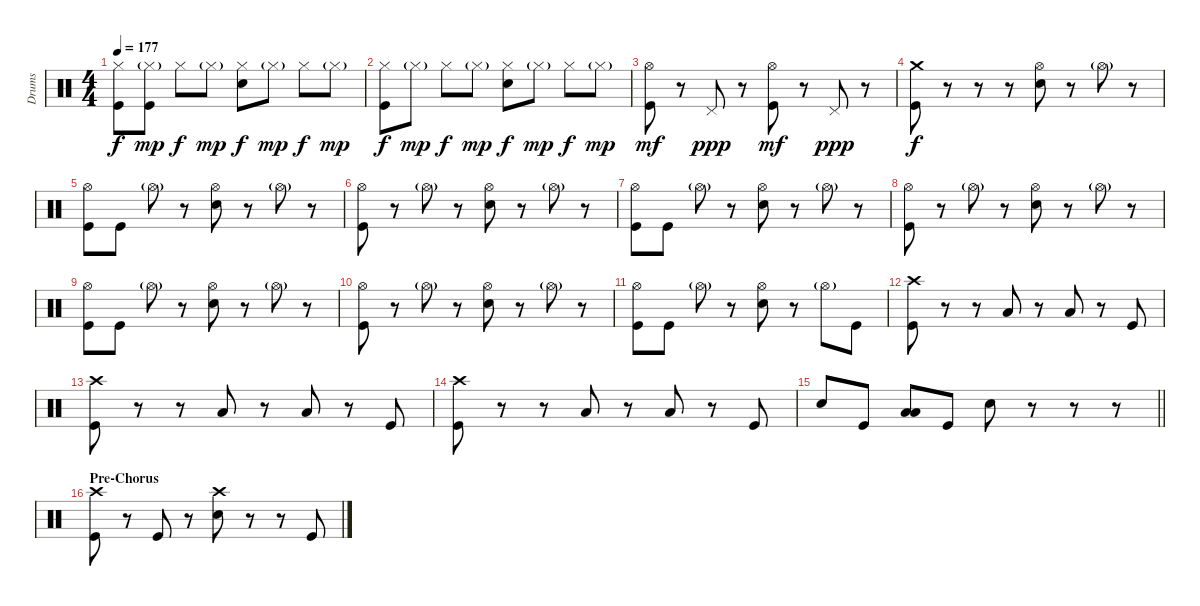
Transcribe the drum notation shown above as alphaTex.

\track ("Drums" "Drums") {instrument percussion}
\staff {score}
\articulation defaults
\ts (4 4)
\tempo 177
\clef neutral
\ks c
("Hi-Hat (closed)" "Kick (hit)").8{dy f} ("Hi-Hat (closed)"{g} "Kick (hit)").8{dy mp} "Hi-Hat (closed)".8{dy f} "Hi-Hat (closed)"{g}.8{dy mp} ("Hi-Hat (closed)" "Snare (hit) 2").8{dy f} "Hi-Hat (closed)"{g}.8{dy mp} "Hi-Hat (closed)".8{dy f} "Hi-Hat (closed)"{g}.8{dy mp} |
("Hi-Hat (closed)" "Kick (hit)").8{dy f} "Hi-Hat (closed)"{g}.8{dy mp} "Hi-Hat (closed)".8{dy f} "Hi-Hat (closed)"{g}.8{dy mp} ("Hi-Hat (closed)" "Snare (hit) 2").8{dy f} "Hi-Hat (closed)"{g}.8{dy mp} "Hi-Hat (closed)".8{dy f} "Hi-Hat (closed)"{g}.8{dy mp} |
("Hi-Hat (open)" "Kick (hit)").8{dy mf} r.8 "Pedal Hi-Hat (hit)".8{dy ppp} r.8 ("Hi-Hat (open)" "Kick (hit)").8{dy mf} r.8 "Pedal Hi-Hat (hit)".8{dy ppp} r.8 |
("Crash medium (hit)" "Kick (hit)").8{dy f} r.8 r.8 r.8 ("Hi-Hat (open)" "Snare (hit) 2").8 r.8 "Hi-Hat (open)"{g}.8 r.8 |
("Hi-Hat (open)" "Kick (hit)").8 "Kick (hit)".8 "Hi-Hat (open)"{g}.8 r.8 ("Hi-Hat (open)" "Snare (hit) 2").8 r.8 "Hi-Hat (open)"{g}.8 r.8 |
("Hi-Hat (open)" "Kick (hit)").8 r.8 "Hi-Hat (open)"{g}.8 r.8 ("Hi-Hat (open)" "Snare (hit) 2").8 r.8 "Hi-Hat (open)"{g}.8 r.8 |
("Hi-Hat (open)" "Kick (hit)").8 "Kick (hit)".8 "Hi-Hat (open)"{g}.8 r.8 ("Hi-Hat (open)" "Snare (hit) 2").8 r.8 "Hi-Hat (open)"{g}.8 r.8 |
("Hi-Hat (open)" "Kick (hit)").8 r.8 "Hi-Hat (open)"{g}.8 r.8 ("Hi-Hat (open)" "Snare (hit) 2").8 r.8 "Hi-Hat (open)"{g}.8 r.8 |
("Hi-Hat (open)" "Kick (hit)").8 "Kick (hit)".8 "Hi-Hat (open)"{g}.8 r.8 ("Hi-Hat (open)" "Snare (hit) 2").8 r.8 "Hi-Hat (open)"{g}.8 r.8 |
("Hi-Hat (open)" "Kick (hit)").8 r.8 "Hi-Hat (open)"{g}.8 r.8 ("Hi-Hat (open)" "Snare (hit) 2").8 r.8 "Hi-Hat (open)"{g}.8 r.8 |
("Hi-Hat (open)" "Kick (hit)").8 "Kick (hit)".8 "Hi-Hat (open)"{g}.8 r.8 ("Hi-Hat (open)" "Snare (hit) 2").8 r.8 "Hi-Hat (open)"{g}.8 "Kick (hit)".8 |
("Crash high (hit)" "Kick (hit)").8 r.8 r.8 "Low Tom (hit)".8 r.8 "Low Floor Tom (hit)".8 r.8 "Kick (hit)".8 |
("Crash high (hit)" "Kick (hit)").8 r.8 r.8 "Low Tom (hit)".8 r.8 "Low Floor Tom (hit)".8 r.8 "Kick (hit)".8 |
("Crash high (hit)" "Kick (hit)").8 r.8 r.8 "Low Tom (hit)".8 r.8 "Low Floor Tom (hit)".8 r.8 "Kick (hit)".8 |
\barLineRight lightlight "Snare (hit) 2".8 "Kick (hit)".8
("Low Tom (hit)" "Low Floor Tom (hit)").8 "Kick (hit)".8 "Snare (hit) 2".8 r.8 r.8 r.8 |
\section ("" "Pre-Chorus")
("Crash high (hit)" "Kick (hit)").8 r.8 "Kick (hit)".8 r.8 ("Crash high (hit)" "Snare (hit) 2").8 r.8 r.8 "Kick (hit)".8
